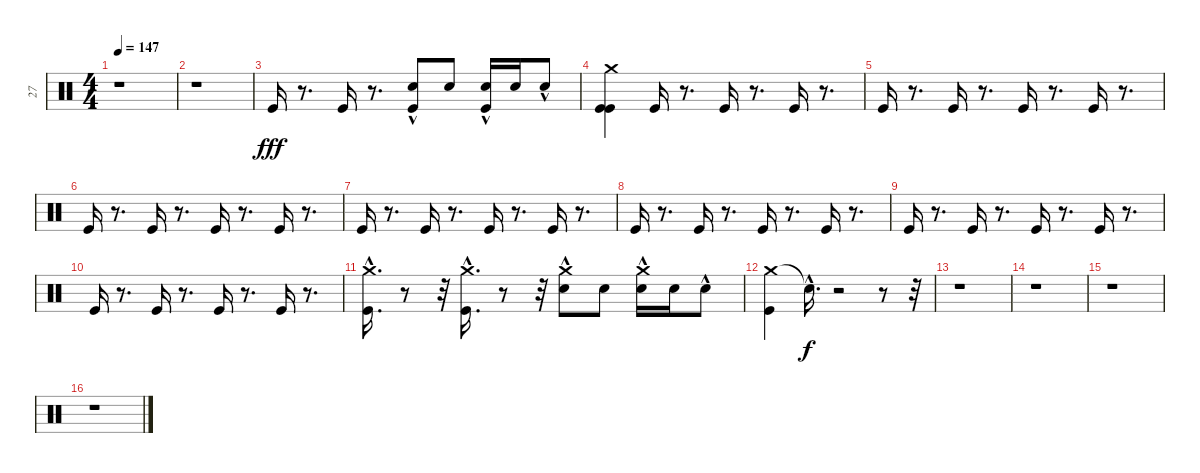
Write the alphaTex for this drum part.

\track ("27" "27") {instrument percussion}
\staff {score}
\articulation defaults
\ts (4 4)
\tempo 147
\clef neutral
\ks c
r.1{dy f} |
r.1 |
"Kick (hit)".16{dy fff} r.8{d} "Kick (hit)".16 r.8{d} ("Kick (hit)"{hac} "Snare (hit)").8 "Snare (hit)".8 ("Kick (hit)"{hac} "Snare (hit)").16 "Snare (hit)".16 "Snare (hit)"{hac}.8 |
("Crash medium (hit)" "Kick (hit)" "Kick (hit)").4 "Kick (hit)".16 r.8{d} "Kick (hit)".16 r.8{d} "Kick (hit)".16 r.8{d} |
"Kick (hit)".16 r.8{d} "Kick (hit)".16 r.8{d} "Kick (hit)".16 r.8{d} "Kick (hit)".16 r.8{d} |
"Kick (hit)".16 r.8{d} "Kick (hit)".16 r.8{d} "Kick (hit)".16 r.8{d} "Kick (hit)".16 r.8{d} |
"Kick (hit)".16 r.8{d} "Kick (hit)".16 r.8{d} "Kick (hit)".16 r.8{d} "Kick (hit)".16 r.8{d} |
"Kick (hit)".16 r.8{d} "Kick (hit)".16 r.8{d} "Kick (hit)".16 r.8{d} "Kick (hit)".16 r.8{d} |
"Kick (hit)".16 r.8{d} "Kick (hit)".16 r.8{d} "Kick (hit)".16 r.8{d} "Kick (hit)".16 r.8{d} |
"Kick (hit)".16 r.8{d} "Kick (hit)".16 r.8{d} "Kick (hit)".16 r.8{d} "Kick (hit)".16 r.8{d} |
("Crash medium (hit)"{hac} "Kick (hit)").16{d} r.8 r.32 ("Crash medium (hit)"{hac} "Kick (hit)").16{d} r.8 r.32 ("Crash medium (hit)"{hac} "Snare (hit)").8 "Snare (hit)".8 ("Crash medium (hit)"{hac} "Snare (hit)").16 "Snare (hit)".16 "Snare (hit)"{hac}.8 |
("Crash medium (hit)" "Kick (hit)").4 "Snare (hit)"{hac t}.16{d dy f} r.2 r.8 r.32 |
r.1 |
r.1 |
r.1 |
r.1
